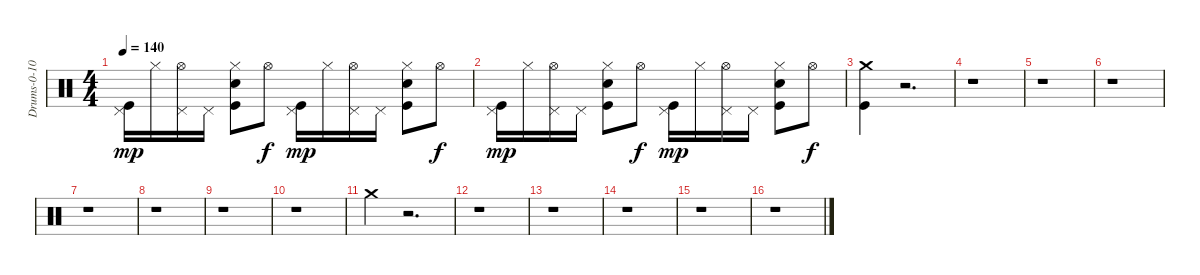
\track ("Drums-0-10" "Drums-0-10") {instrument percussion}
\staff {score}
\articulation defaults
\ts (4 4)
\tempo 140
\clef neutral
\ks c
("Kick (hit)" "Pedal Hi-Hat (hit)").16{dy mp} "Hi-Hat (closed)".16 ("Pedal Hi-Hat (hit)" "Hi-Hat (open)").16 "Pedal Hi-Hat (hit)".16 ("Kick (hit)" "Hand Clap (hit)" "Hi-Hat (closed)").8 "Hi-Hat (open)".8{dy f} ("Kick (hit)" "Pedal Hi-Hat (hit)").16{dy mp} "Hi-Hat (closed)".16 ("Pedal Hi-Hat (hit)" "Hi-Hat (open)").16 "Pedal Hi-Hat (hit)".16 ("Kick (hit)" "Hand Clap (hit)" "Hi-Hat (closed)").8 "Hi-Hat (open)".8{dy f} |
("Kick (hit)" "Pedal Hi-Hat (hit)").16{dy mp} "Hi-Hat (closed)".16 ("Pedal Hi-Hat (hit)" "Hi-Hat (open)").16 "Pedal Hi-Hat (hit)".16 ("Kick (hit)" "Hand Clap (hit)" "Hi-Hat (closed)").8 "Hi-Hat (open)".8{dy f} ("Kick (hit)" "Pedal Hi-Hat (hit)").16{dy mp} "Hi-Hat (closed)".16 ("Pedal Hi-Hat (hit)" "Hi-Hat (open)").16 "Pedal Hi-Hat (hit)".16 ("Kick (hit)" "Hand Clap (hit)" "Hi-Hat (closed)").8 "Hi-Hat (open)".8{dy f} |
("Crash medium (hit)" "Kick (hit)").4 r.2{d} |
r.1 |
r.1 |
r.1 |
r.1 |
r.1 |
r.1 |
r.1 |
"Crash medium (hit)".4 r.2{d} |
r.1 |
r.1 |
r.1 |
r.1 |
r.1
